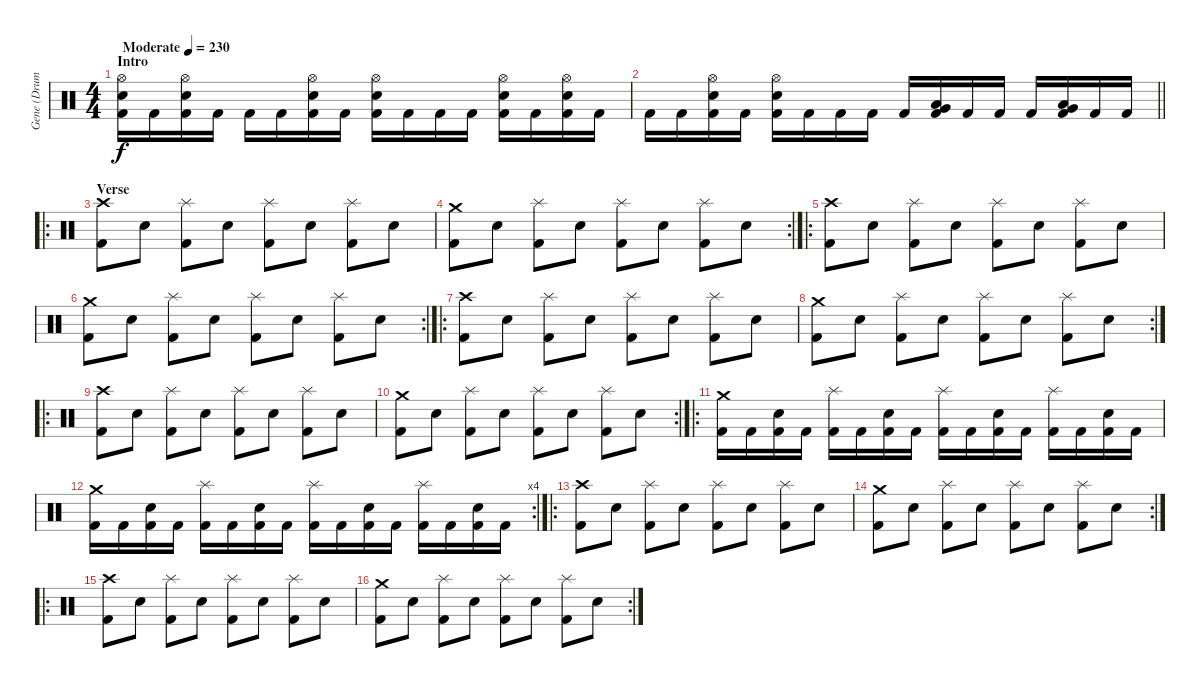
\track ("Gene (Drums)" "Gene (Drum") {instrument percussion}
\staff {score}
\articulation defaults
\ts (4 4)
\section ("" "Intro")
\tempo (230 "Moderate")
\clef neutral
\ks c
("Hi-Hat (open)" "Electric Snare (hit)" "Kick (hit) 2").16{dy f} "Kick (hit) 2".16 ("Hi-Hat (open)" "Electric Snare (hit)" "Kick (hit) 2").16 "Kick (hit) 2".16 "Kick (hit) 2".16 "Kick (hit) 2".16 ("Hi-Hat (open)" "Electric Snare (hit)" "Kick (hit) 2").16 "Kick (hit) 2".16 ("Hi-Hat (open)" "Electric Snare (hit)" "Kick (hit) 2").16 "Kick (hit) 2".16 "Kick (hit) 2".16 "Kick (hit) 2".16 ("Hi-Hat (open)" "Electric Snare (hit)" "Kick (hit) 2").16 "Kick (hit) 2".16 ("Hi-Hat (open)" "Electric Snare (hit)" "Kick (hit) 2").16 "Kick (hit) 2".16 |
\barLineRight lightlight "Kick (hit) 2".16 "Kick (hit) 2".16
("Hi-Hat (open)" "Electric Snare (hit)" "Kick (hit) 2").16 "Kick (hit) 2".16 ("Hi-Hat (open)" "Electric Snare (hit)" "Kick (hit) 2").16 "Kick (hit) 2".16 "Kick (hit) 2".16 "Kick (hit) 2".16 "Kick (hit) 2".16 ("Very Low Tom (hit)" "Low Tom (hit)" "Kick (hit) 2").16 "Kick (hit) 2".16 "Kick (hit) 2".16 "Kick (hit) 2".16 ("Very Low Tom (hit)" "Low Tom (hit)" "Kick (hit) 2").16 "Kick (hit) 2".16 "Kick (hit) 2".16 |
\ro
\section ("" "Verse ")
("Crash high (hit)" "Kick (hit) 2").8 "Electric Snare (hit)".8 ("Splash (hit)" "Kick (hit) 2").8 "Electric Snare (hit)".8 ("Splash (hit)" "Kick (hit) 2").8 "Electric Snare (hit)".8 ("Splash (hit)" "Kick (hit) 2").8 "Electric Snare (hit)".8 |
\rc 2
("Crash medium (hit)" "Kick (hit) 2").8 "Electric Snare (hit)".8 ("Splash (hit)" "Kick (hit) 2").8 "Electric Snare (hit)".8 ("Splash (hit)" "Kick (hit) 2").8 "Electric Snare (hit)".8 ("Splash (hit)" "Kick (hit) 2").8 "Electric Snare (hit)".8 |
\ro
("Crash high (hit)" "Kick (hit) 2").8 "Electric Snare (hit)".8 ("Splash (hit)" "Kick (hit) 2").8 "Electric Snare (hit)".8 ("Splash (hit)" "Kick (hit) 2").8 "Electric Snare (hit)".8 ("Splash (hit)" "Kick (hit) 2").8 "Electric Snare (hit)".8 |
\rc 2
("Crash medium (hit)" "Kick (hit) 2").8 "Electric Snare (hit)".8 ("Splash (hit)" "Kick (hit) 2").8 "Electric Snare (hit)".8 ("Splash (hit)" "Kick (hit) 2").8 "Electric Snare (hit)".8 ("Splash (hit)" "Kick (hit) 2").8 "Electric Snare (hit)".8 |
\ro
("Crash high (hit)" "Kick (hit) 2").8 "Electric Snare (hit)".8 ("Splash (hit)" "Kick (hit) 2").8 "Electric Snare (hit)".8 ("Splash (hit)" "Kick (hit) 2").8 "Electric Snare (hit)".8 ("Splash (hit)" "Kick (hit) 2").8 "Electric Snare (hit)".8 |
\rc 2
("Crash medium (hit)" "Kick (hit) 2").8 "Electric Snare (hit)".8 ("Splash (hit)" "Kick (hit) 2").8 "Electric Snare (hit)".8 ("Splash (hit)" "Kick (hit) 2").8 "Electric Snare (hit)".8 ("Splash (hit)" "Kick (hit) 2").8 "Electric Snare (hit)".8 |
\ro
("Crash high (hit)" "Kick (hit) 2").8 "Electric Snare (hit)".8 ("Splash (hit)" "Kick (hit) 2").8 "Electric Snare (hit)".8 ("Splash (hit)" "Kick (hit) 2").8 "Electric Snare (hit)".8 ("Splash (hit)" "Kick (hit) 2").8 "Electric Snare (hit)".8 |
\rc 2
("Crash medium (hit)" "Kick (hit) 2").8 "Electric Snare (hit)".8 ("Splash (hit)" "Kick (hit) 2").8 "Electric Snare (hit)".8 ("Splash (hit)" "Kick (hit) 2").8 "Electric Snare (hit)".8 ("Splash (hit)" "Kick (hit) 2").8 "Electric Snare (hit)".8 |
\ro
("Crash medium (hit)" "Kick (hit) 2").16 "Kick (hit) 2".16 ("Electric Snare (hit)" "Kick (hit) 2").16 "Kick (hit) 2".16 ("Splash (hit)" "Kick (hit) 2").16 "Kick (hit) 2".16 ("Electric Snare (hit)" "Kick (hit) 2").16 "Kick (hit) 2".16 ("Splash (hit)" "Kick (hit) 2").16 "Kick (hit) 2".16 ("Electric Snare (hit)" "Kick (hit) 2").16 "Kick (hit) 2".16 ("Splash (hit)" "Kick (hit) 2").16 "Kick (hit) 2".16 ("Electric Snare (hit)" "Kick (hit) 2").16 "Kick (hit) 2".16 |
\rc 4
("Crash medium (hit)" "Kick (hit) 2").16 "Kick (hit) 2".16 ("Electric Snare (hit)" "Kick (hit) 2").16 "Kick (hit) 2".16 ("Splash (hit)" "Kick (hit) 2").16 "Kick (hit) 2".16 ("Electric Snare (hit)" "Kick (hit) 2").16 "Kick (hit) 2".16 ("Splash (hit)" "Kick (hit) 2").16 "Kick (hit) 2".16 ("Electric Snare (hit)" "Kick (hit) 2").16 "Kick (hit) 2".16 ("Splash (hit)" "Kick (hit) 2").16 "Kick (hit) 2".16 ("Electric Snare (hit)" "Kick (hit) 2").16 "Kick (hit) 2".16 |
\ro
("Crash high (hit)" "Kick (hit) 2").8 "Electric Snare (hit)".8 ("Splash (hit)" "Kick (hit) 2").8 "Electric Snare (hit)".8 ("Splash (hit)" "Kick (hit) 2").8 "Electric Snare (hit)".8 ("Splash (hit)" "Kick (hit) 2").8 "Electric Snare (hit)".8 |
\rc 2
("Crash medium (hit)" "Kick (hit) 2").8 "Electric Snare (hit)".8 ("Splash (hit)" "Kick (hit) 2").8 "Electric Snare (hit)".8 ("Splash (hit)" "Kick (hit) 2").8 "Electric Snare (hit)".8 ("Splash (hit)" "Kick (hit) 2").8 "Electric Snare (hit)".8 |
\ro
("Crash high (hit)" "Kick (hit) 2").8 "Electric Snare (hit)".8 ("Splash (hit)" "Kick (hit) 2").8 "Electric Snare (hit)".8 ("Splash (hit)" "Kick (hit) 2").8 "Electric Snare (hit)".8 ("Splash (hit)" "Kick (hit) 2").8 "Electric Snare (hit)".8 |
\rc 2
("Crash medium (hit)" "Kick (hit) 2").8 "Electric Snare (hit)".8 ("Splash (hit)" "Kick (hit) 2").8 "Electric Snare (hit)".8 ("Splash (hit)" "Kick (hit) 2").8 "Electric Snare (hit)".8 ("Splash (hit)" "Kick (hit) 2").8 "Electric Snare (hit)".8
